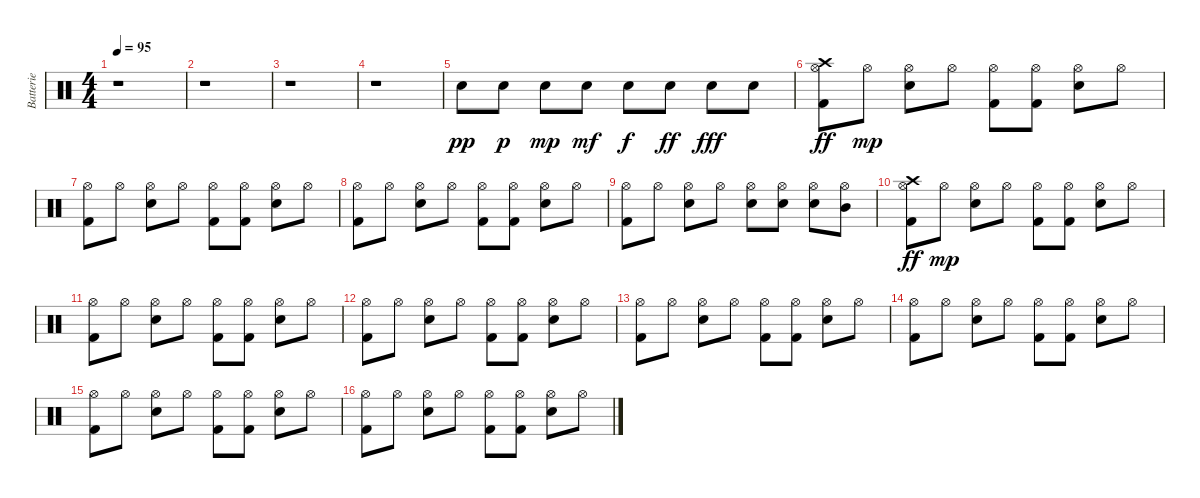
\track ("Batterie" "Batterie") {instrument percussion}
\staff {score}
\articulation defaults
\ts (4 4)
\tempo 95
\clef neutral
\ks c
r.1{dy f} |
r.1 |
r.1 |
r.1 |
"Electric Snare (hit)".8{dy pp} "Electric Snare (hit)".8{dy p} "Electric Snare (hit)".8{dy mp} "Electric Snare (hit)".8{dy mf} "Electric Snare (hit)".8{dy f} "Electric Snare (hit)".8{dy ff} "Electric Snare (hit)".8{dy fff} "Electric Snare (hit)".8 |
("Hi-Hat (open)" "Kick (hit) 2" "Crash high (hit)").8{dy ff} "Hi-Hat (open)".8{dy mp} ("Hi-Hat (open)" "Electric Snare (hit)").8 "Hi-Hat (open)".8 ("Hi-Hat (open)" "Kick (hit) 2").8 ("Hi-Hat (open)" "Kick (hit) 2").8 ("Hi-Hat (open)" "Electric Snare (hit)").8 "Hi-Hat (open)".8 |
("Hi-Hat (open)" "Kick (hit) 2").8 "Hi-Hat (open)".8 ("Hi-Hat (open)" "Electric Snare (hit)").8 "Hi-Hat (open)".8 ("Hi-Hat (open)" "Kick (hit) 2").8 ("Hi-Hat (open)" "Kick (hit) 2").8 ("Hi-Hat (open)" "Electric Snare (hit)").8 "Hi-Hat (open)".8 |
("Hi-Hat (open)" "Kick (hit) 2").8 "Hi-Hat (open)".8 ("Hi-Hat (open)" "Electric Snare (hit)").8 "Hi-Hat (open)".8 ("Hi-Hat (open)" "Kick (hit) 2").8 ("Hi-Hat (open)" "Kick (hit) 2").8 ("Hi-Hat (open)" "Electric Snare (hit)").8 "Hi-Hat (open)".8 |
("Hi-Hat (open)" "Kick (hit) 2").8 "Hi-Hat (open)".8 ("Hi-Hat (open)" "Electric Snare (hit)").8 "Hi-Hat (open)".8 ("Hi-Hat (open)" "Electric Snare (hit)").8 ("Hi-Hat (open)" "Electric Snare (hit)").8 ("Hi-Hat (open)" "Electric Snare (hit)").8 ("Hi-Hat (open)" "Mid Tom (hit)").8 |
("Hi-Hat (open)" "Kick (hit) 2" "Crash high (hit)").8{dy ff} "Hi-Hat (open)".8{dy mp} ("Hi-Hat (open)" "Electric Snare (hit)").8 "Hi-Hat (open)".8 ("Hi-Hat (open)" "Kick (hit) 2").8 ("Hi-Hat (open)" "Kick (hit) 2").8 ("Hi-Hat (open)" "Electric Snare (hit)").8 "Hi-Hat (open)".8 |
("Hi-Hat (open)" "Kick (hit) 2").8 "Hi-Hat (open)".8 ("Hi-Hat (open)" "Electric Snare (hit)").8 "Hi-Hat (open)".8 ("Hi-Hat (open)" "Kick (hit) 2").8 ("Hi-Hat (open)" "Kick (hit) 2").8 ("Hi-Hat (open)" "Electric Snare (hit)").8 "Hi-Hat (open)".8 |
("Hi-Hat (open)" "Kick (hit) 2").8 "Hi-Hat (open)".8 ("Hi-Hat (open)" "Electric Snare (hit)").8 "Hi-Hat (open)".8 ("Hi-Hat (open)" "Kick (hit) 2").8 ("Hi-Hat (open)" "Kick (hit) 2").8 ("Hi-Hat (open)" "Electric Snare (hit)").8 "Hi-Hat (open)".8 |
("Hi-Hat (open)" "Kick (hit) 2").8 "Hi-Hat (open)".8 ("Hi-Hat (open)" "Electric Snare (hit)").8 "Hi-Hat (open)".8 ("Hi-Hat (open)" "Kick (hit) 2").8 ("Hi-Hat (open)" "Kick (hit) 2").8 ("Hi-Hat (open)" "Electric Snare (hit)").8 "Hi-Hat (open)".8 |
("Hi-Hat (open)" "Kick (hit) 2").8 "Hi-Hat (open)".8 ("Hi-Hat (open)" "Electric Snare (hit)").8 "Hi-Hat (open)".8 ("Hi-Hat (open)" "Kick (hit) 2").8 ("Hi-Hat (open)" "Kick (hit) 2").8 ("Hi-Hat (open)" "Electric Snare (hit)").8 "Hi-Hat (open)".8 |
("Hi-Hat (open)" "Kick (hit) 2").8 "Hi-Hat (open)".8 ("Hi-Hat (open)" "Electric Snare (hit)").8 "Hi-Hat (open)".8 ("Hi-Hat (open)" "Kick (hit) 2").8 ("Hi-Hat (open)" "Kick (hit) 2").8 ("Hi-Hat (open)" "Electric Snare (hit)").8 "Hi-Hat (open)".8 |
("Hi-Hat (open)" "Kick (hit) 2").8 "Hi-Hat (open)".8 ("Hi-Hat (open)" "Electric Snare (hit)").8 "Hi-Hat (open)".8 ("Hi-Hat (open)" "Kick (hit) 2").8 ("Hi-Hat (open)" "Kick (hit) 2").8 ("Hi-Hat (open)" "Electric Snare (hit)").8 "Hi-Hat (open)".8
